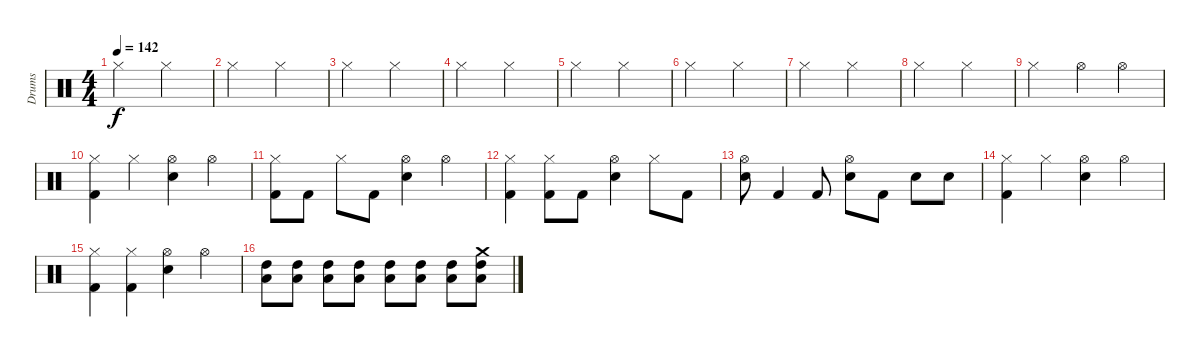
\track ("Drums" "Drums") {instrument percussion}
\staff {score}
\articulation defaults
\ts (4 4)
\tempo 142
\clef neutral
\ks c "Hi-Hat (closed)".2{dy f} "Hi-Hat (closed)".2
|
"Hi-Hat (closed)".2 "Hi-Hat (closed)".2 |
"Hi-Hat (closed)".2 "Hi-Hat (closed)".2 |
"Hi-Hat (closed)".2 "Hi-Hat (closed)".2 |
"Hi-Hat (closed)".2 "Hi-Hat (closed)".2 |
"Hi-Hat (closed)".2 "Hi-Hat (closed)".2 |
"Hi-Hat (closed)".2 "Hi-Hat (closed)".2 |
"Hi-Hat (closed)".2 "Hi-Hat (closed)".2 |
"Hi-Hat (closed)".2 "Hi-Hat (open)".4 "Hi-Hat (open)".4 |
("Hi-Hat (closed)" "Kick (hit) 2").4 "Hi-Hat (closed)".4 ("Hi-Hat (open)" "Snare (hit) 2").4 "Hi-Hat (open)".4 |
("Hi-Hat (closed)" "Kick (hit) 2").8 "Kick (hit) 2".8 "Hi-Hat (closed)".8 "Kick (hit) 2".8 ("Hi-Hat (open)" "Snare (hit) 2").4 "Hi-Hat (open)".4 |
("Hi-Hat (closed)" "Kick (hit) 2").4 ("Hi-Hat (closed)" "Kick (hit) 2").8 "Kick (hit) 2".8 ("Hi-Hat (open)" "Snare (hit) 2").4 "Hi-Hat (closed)".8 "Kick (hit) 2".8 |
("Hi-Hat (open)" "Snare (hit) 2").8 "Kick (hit) 2".4 "Kick (hit) 2".8 ("Hi-Hat (open)" "Snare (hit) 2").8 "Kick (hit) 2".8 "Snare (hit) 2".8 "Snare (hit) 2".8 |
("Hi-Hat (closed)" "Kick (hit) 2").4 "Hi-Hat (closed)".4 ("Hi-Hat (open)" "Snare (hit) 2").4 "Hi-Hat (open)".4 |
("Hi-Hat (closed)" "Kick (hit) 2").4 ("Hi-Hat (closed)" "Kick (hit) 2").4 ("Hi-Hat (open)" "Snare (hit) 2").4 "Hi-Hat (open)".4 |
("Low Tom (hit)" "High Tom (hit)").8 ("Low Tom (hit)" "High Tom (hit)").8 ("Low Tom (hit)" "High Tom (hit)").8 ("Low Tom (hit)" "High Tom (hit)").8 ("Low Tom (hit)" "High Tom (hit)").8 ("Low Tom (hit)" "High Tom (hit)").8 ("Low Tom (hit)" "High Tom (hit)").8 ("Crash medium (hit)" "Low Tom (hit)" "High Tom (hit)").8
